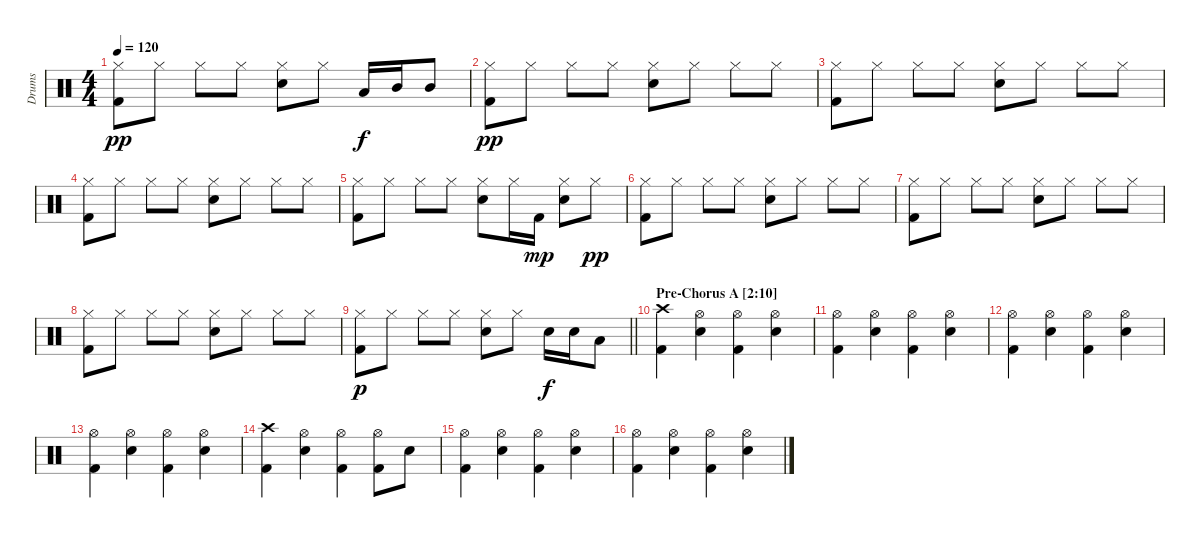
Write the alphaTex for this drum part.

\track ("Drums" "Drums") {instrument percussion}
\staff {score}
\articulation defaults
\ts (4 4)
\tempo 120
\clef neutral
\ks c
("Hi-Hat (closed)" "Kick (hit) 2").8{dy pp} "Hi-Hat (closed)".8 "Hi-Hat (closed)".8 "Hi-Hat (closed)".8 ("Hi-Hat (closed)" "Snare (hit) 2").8 "Hi-Hat (closed)".8 "Low Tom (hit)".16{dy f} "Mid Tom (hit)".16 "Mid Tom (hit)".8 |
("Hi-Hat (closed)" "Kick (hit) 2").8{dy pp} "Hi-Hat (closed)".8 "Hi-Hat (closed)".8 "Hi-Hat (closed)".8 ("Hi-Hat (closed)" "Snare (hit) 2").8 "Hi-Hat (closed)".8 "Hi-Hat (closed)".8 "Hi-Hat (closed)".8 |
("Hi-Hat (closed)" "Kick (hit) 2").8 "Hi-Hat (closed)".8 "Hi-Hat (closed)".8 "Hi-Hat (closed)".8 ("Hi-Hat (closed)" "Snare (hit) 2").8 "Hi-Hat (closed)".8 "Hi-Hat (closed)".8 "Hi-Hat (closed)".8 |
("Hi-Hat (closed)" "Kick (hit) 2").8 "Hi-Hat (closed)".8 "Hi-Hat (closed)".8 "Hi-Hat (closed)".8 ("Hi-Hat (closed)" "Snare (hit) 2").8 "Hi-Hat (closed)".8 "Hi-Hat (closed)".8 "Hi-Hat (closed)".8 |
("Hi-Hat (closed)" "Kick (hit) 2").8 "Hi-Hat (closed)".8 "Hi-Hat (closed)".8 "Hi-Hat (closed)".8 ("Hi-Hat (closed)" "Snare (hit) 2").8 "Hi-Hat (closed)".16 "Kick (hit) 2".16{dy mp} ("Hi-Hat (closed)" "Snare (hit) 2").8 "Hi-Hat (closed)".8{dy pp} |
("Hi-Hat (closed)" "Kick (hit) 2").8 "Hi-Hat (closed)".8 "Hi-Hat (closed)".8 "Hi-Hat (closed)".8 ("Hi-Hat (closed)" "Snare (hit) 2").8 "Hi-Hat (closed)".8 "Hi-Hat (closed)".8 "Hi-Hat (closed)".8 |
("Hi-Hat (closed)" "Kick (hit) 2").8 "Hi-Hat (closed)".8 "Hi-Hat (closed)".8 "Hi-Hat (closed)".8 ("Hi-Hat (closed)" "Snare (hit) 2").8 "Hi-Hat (closed)".8 "Hi-Hat (closed)".8 "Hi-Hat (closed)".8 |
("Hi-Hat (closed)" "Kick (hit) 2").8 "Hi-Hat (closed)".8 "Hi-Hat (closed)".8 "Hi-Hat (closed)".8 ("Hi-Hat (closed)" "Snare (hit) 2").8 "Hi-Hat (closed)".8 "Hi-Hat (closed)".8 "Hi-Hat (closed)".8 |
\barLineRight lightlight
("Hi-Hat (closed)" "Kick (hit) 2").8{dy p} "Hi-Hat (closed)".8 "Hi-Hat (closed)".8 "Hi-Hat (closed)".8 ("Hi-Hat (closed)" "Snare (hit) 2").8 "Hi-Hat (closed)".8 "Snare (hit) 2".16{dy f} "Snare (hit) 2".16 "Low Tom (hit)".8 |
\section ("" "Pre-Chorus A [2:10]")
("Crash high (hit)" "Kick (hit) 2").4 ("Hi-Hat (open)" "Snare (hit) 2").4 ("Hi-Hat (open)" "Kick (hit) 2").4 ("Hi-Hat (open)" "Snare (hit) 2").4 |
("Hi-Hat (open)" "Kick (hit) 2").4 ("Hi-Hat (open)" "Snare (hit) 2").4 ("Hi-Hat (open)" "Kick (hit) 2").4 ("Hi-Hat (open)" "Snare (hit) 2").4 |
("Hi-Hat (open)" "Kick (hit) 2").4 ("Hi-Hat (open)" "Snare (hit) 2").4 ("Hi-Hat (open)" "Kick (hit) 2").4 ("Hi-Hat (open)" "Snare (hit) 2").4 |
("Hi-Hat (open)" "Kick (hit) 2").4 ("Hi-Hat (open)" "Snare (hit) 2").4 ("Hi-Hat (open)" "Kick (hit) 2").4 ("Hi-Hat (open)" "Snare (hit) 2").4 |
("Crash high (hit)" "Kick (hit) 2").4 ("Hi-Hat (open)" "Snare (hit) 2").4 ("Hi-Hat (open)" "Kick (hit) 2").4 ("Hi-Hat (open)" "Kick (hit) 2").8 "Snare (hit) 2".8 |
("Hi-Hat (open)" "Kick (hit) 2").4 ("Hi-Hat (open)" "Snare (hit) 2").4 ("Hi-Hat (open)" "Kick (hit) 2").4 ("Hi-Hat (open)" "Snare (hit) 2").4 |
("Hi-Hat (open)" "Kick (hit) 2").4 ("Hi-Hat (open)" "Snare (hit) 2").4 ("Hi-Hat (open)" "Kick (hit) 2").4 ("Hi-Hat (open)" "Snare (hit) 2").4
